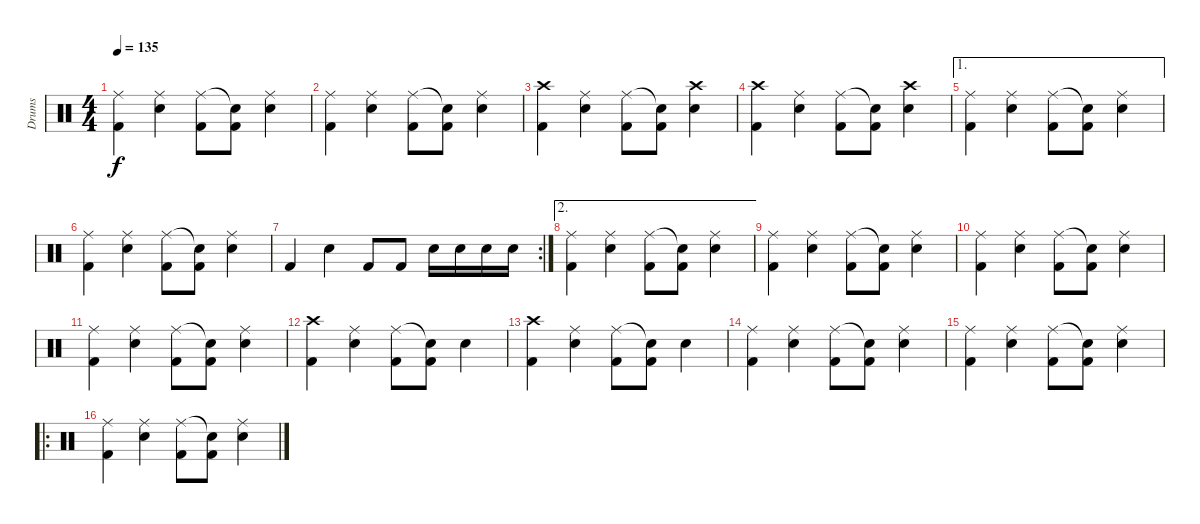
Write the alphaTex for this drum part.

\track ("Drums" "Drums") {instrument percussion}
\staff {score}
\articulation defaults
\ts (4 4)
\tempo 135
\clef neutral
\ks c
("Ride (middle)" "Kick (hit) 2").4{dy f} ("Ride (middle)" "Snare (hit) 2").4 ("Ride (middle)" "Kick (hit) 2").8 ("Snare (hit)"{t} "Kick (hit) 2").8 ("Ride (middle)" "Snare (hit) 2").4 |
("Ride (middle)" "Kick (hit) 2").4 ("Ride (middle)" "Snare (hit) 2").4 ("Ride (middle)" "Kick (hit) 2").8 ("Snare (hit)"{t} "Kick (hit) 2").8 ("Ride (middle)" "Snare (hit) 2").4 |
("Crash high (hit)" "Kick (hit) 2").4 ("Ride (middle)" "Snare (hit) 2").4 ("Ride (middle)" "Kick (hit) 2").8 ("Snare (hit)"{t} "Kick (hit) 2").8 ("Crash high (hit)" "Snare (hit) 2").4 |
("Crash high (hit)" "Kick (hit) 2").4 ("Ride (middle)" "Snare (hit) 2").4 ("Ride (middle)" "Kick (hit) 2").8 ("Snare (hit)"{t} "Kick (hit) 2").8 ("Crash high (hit)" "Snare (hit) 2").4 |
\ae 1
("Ride (middle)" "Kick (hit) 2").4 ("Ride (middle)" "Snare (hit) 2").4 ("Ride (middle)" "Kick (hit) 2").8 ("Snare (hit)"{t} "Kick (hit) 2").8 ("Ride (middle)" "Snare (hit) 2").4 |
("Ride (middle)" "Kick (hit) 2").4 ("Ride (middle)" "Snare (hit) 2").4 ("Ride (middle)" "Kick (hit) 2").8 ("Snare (hit)"{t} "Kick (hit) 2").8 ("Ride (middle)" "Snare (hit) 2").4 |
\rc 2 "Kick (hit) 2".4 "Snare (hit) 2".4 "Kick (hit) 2".8 "Kick (hit) 2".8 "Snare (hit) 2".16 "Snare (hit) 2".16 "Snare (hit) 2".16 "Snare (hit) 2".16
|
\ae 2
("Ride (middle)" "Kick (hit) 2").4 ("Ride (middle)" "Snare (hit) 2").4 ("Ride (middle)" "Kick (hit) 2").8 ("Snare (hit)"{t} "Kick (hit) 2").8 ("Ride (middle)" "Snare (hit) 2").4 |
("Ride (middle)" "Kick (hit) 2").4 ("Ride (middle)" "Snare (hit) 2").4 ("Ride (middle)" "Kick (hit) 2").8 ("Snare (hit)"{t} "Kick (hit) 2").8 ("Ride (middle)" "Snare (hit) 2").4 |
("Ride (middle)" "Kick (hit) 2").4 ("Ride (middle)" "Snare (hit) 2").4 ("Ride (middle)" "Kick (hit) 2").8 ("Snare (hit)"{t} "Kick (hit) 2").8 ("Ride (middle)" "Snare (hit) 2").4 |
("Ride (middle)" "Kick (hit) 2").4 ("Ride (middle)" "Snare (hit) 2").4 ("Ride (middle)" "Kick (hit) 2").8 ("Snare (hit)"{t} "Kick (hit) 2").8 ("Ride (middle)" "Snare (hit) 2").4 |
("Crash high (hit)" "Kick (hit) 2").4 ("Ride (middle)" "Snare (hit) 2").4 ("Ride (middle)" "Kick (hit) 2").8 ("Snare (hit)"{t} "Kick (hit) 2").8 "Snare (hit) 2".4 |
("Crash high (hit)" "Kick (hit) 2").4 ("Ride (middle)" "Snare (hit) 2").4 ("Ride (middle)" "Kick (hit) 2").8 ("Snare (hit)"{t} "Kick (hit) 2").8 "Snare (hit) 2".4 |
("Ride (middle)" "Kick (hit) 2").4 ("Ride (middle)" "Snare (hit) 2").4 ("Ride (middle)" "Kick (hit) 2").8 ("Snare (hit)"{t} "Kick (hit) 2").8 ("Ride (middle)" "Snare (hit) 2").4 |
("Ride (middle)" "Kick (hit) 2").4 ("Ride (middle)" "Snare (hit) 2").4 ("Ride (middle)" "Kick (hit) 2").8 ("Snare (hit)"{t} "Kick (hit) 2").8 ("Ride (middle)" "Snare (hit) 2").4 |
\ro
("Ride (middle)" "Kick (hit) 2").4 ("Ride (middle)" "Snare (hit) 2").4 ("Ride (middle)" "Kick (hit) 2").8 ("Snare (hit)"{t} "Kick (hit) 2").8 ("Ride (middle)" "Snare (hit) 2").4
